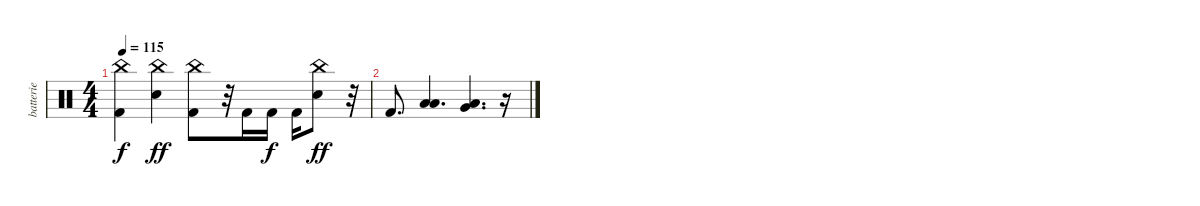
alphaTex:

\track ("batterie" "batterie") {instrument percussion}
\staff {score}
\articulation defaults
\ts (4 4)
\tempo 115
\clef neutral
\ks c
("China (hit)" "Kick (hit) 2").4{dy f} ("China (hit)" "Electric Snare (hit)").4{dy ff} ("China (hit)" "Kick (hit) 2").8 r.32 "Kick (hit) 2".16 "Kick (hit) 2".16{dy f} "Kick (hit) 2".16 ("China (hit)" "Electric Snare (hit)").8{dy ff} r.32 |
"Kick (hit) 2".8{d} ("Low Tom (hit)" "Low Floor Tom (hit)").4{d} ("Very Low Tom (hit)" "Low Floor Tom (hit)").4{d} r.16
